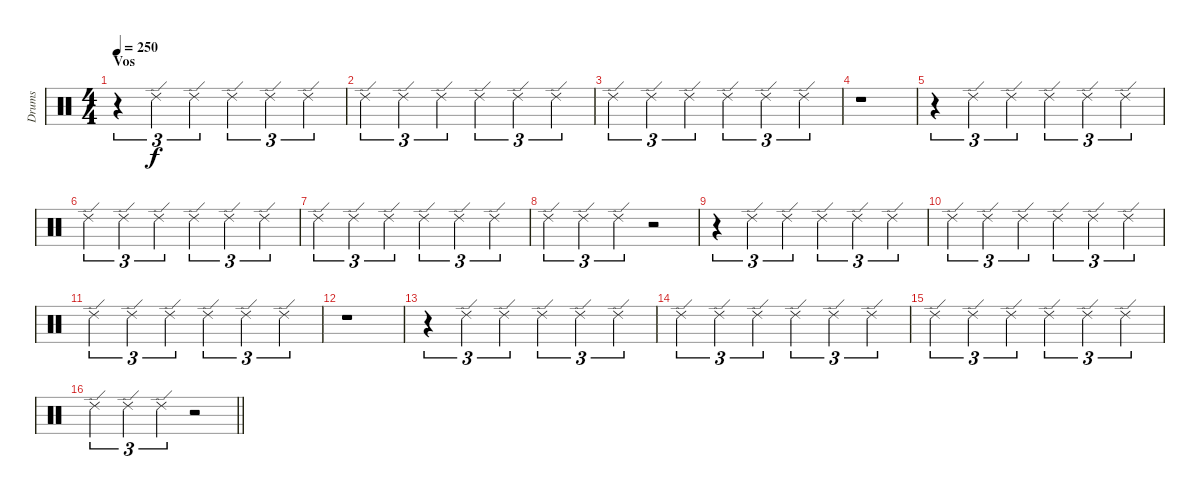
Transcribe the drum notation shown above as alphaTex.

\track ("Drums" "Drums") {instrument percussion}
\staff {score}
\articulation defaults
\ts (4 4)
\section ("" "Vos")
\tempo 250
\clef neutral
\ks c
r.4{tu (3 2) dy f} "Ride (edge) 2".4{tu (3 2)} "Ride (edge) 2".4{tu (3 2)} "Ride (edge) 2".4{tu (3 2)} "Ride (edge) 2".4{tu (3 2)} "Ride (edge) 2".4{tu (3 2)} |
"Ride (edge) 2".4{tu (3 2)} "Ride (edge) 2".4{tu (3 2)} "Ride (edge) 2".4{tu (3 2)} "Ride (edge) 2".4{tu (3 2)} "Ride (edge) 2".4{tu (3 2)} "Ride (edge) 2".4{tu (3 2)} |
"Ride (edge) 2".4{tu (3 2)} "Ride (edge) 2".4{tu (3 2)} "Ride (edge) 2".4{tu (3 2)} "Ride (edge) 2".4{tu (3 2)} "Ride (edge) 2".4{tu (3 2)} "Ride (edge) 2".4{tu (3 2)} |
r.1 |
r.4{tu (3 2)} "Ride (edge) 2".4{tu (3 2)} "Ride (edge) 2".4{tu (3 2)} "Ride (edge) 2".4{tu (3 2)} "Ride (edge) 2".4{tu (3 2)} "Ride (edge) 2".4{tu (3 2)} |
"Ride (edge) 2".4{tu (3 2)} "Ride (edge) 2".4{tu (3 2)} "Ride (edge) 2".4{tu (3 2)} "Ride (edge) 2".4{tu (3 2)} "Ride (edge) 2".4{tu (3 2)} "Ride (edge) 2".4{tu (3 2)} |
"Ride (edge) 2".4{tu (3 2)} "Ride (edge) 2".4{tu (3 2)} "Ride (edge) 2".4{tu (3 2)} "Ride (edge) 2".4{tu (3 2)} "Ride (edge) 2".4{tu (3 2)} "Ride (edge) 2".4{tu (3 2)} |
"Ride (edge) 2".4{tu (3 2)} "Ride (edge) 2".4{tu (3 2)} "Ride (edge) 2".4{tu (3 2)} r.2 |
r.4{tu (3 2)} "Ride (edge) 2".4{tu (3 2)} "Ride (edge) 2".4{tu (3 2)} "Ride (edge) 2".4{tu (3 2)} "Ride (edge) 2".4{tu (3 2)} "Ride (edge) 2".4{tu (3 2)} |
"Ride (edge) 2".4{tu (3 2)} "Ride (edge) 2".4{tu (3 2)} "Ride (edge) 2".4{tu (3 2)} "Ride (edge) 2".4{tu (3 2)} "Ride (edge) 2".4{tu (3 2)} "Ride (edge) 2".4{tu (3 2)} |
"Ride (edge) 2".4{tu (3 2)} "Ride (edge) 2".4{tu (3 2)} "Ride (edge) 2".4{tu (3 2)} "Ride (edge) 2".4{tu (3 2)} "Ride (edge) 2".4{tu (3 2)} "Ride (edge) 2".4{tu (3 2)} |
r.1 |
r.4{tu (3 2)} "Ride (edge) 2".4{tu (3 2)} "Ride (edge) 2".4{tu (3 2)} "Ride (edge) 2".4{tu (3 2)} "Ride (edge) 2".4{tu (3 2)} "Ride (edge) 2".4{tu (3 2)} |
"Ride (edge) 2".4{tu (3 2)} "Ride (edge) 2".4{tu (3 2)} "Ride (edge) 2".4{tu (3 2)} "Ride (edge) 2".4{tu (3 2)} "Ride (edge) 2".4{tu (3 2)} "Ride (edge) 2".4{tu (3 2)} |
"Ride (edge) 2".4{tu (3 2)} "Ride (edge) 2".4{tu (3 2)} "Ride (edge) 2".4{tu (3 2)} "Ride (edge) 2".4{tu (3 2)} "Ride (edge) 2".4{tu (3 2)} "Ride (edge) 2".4{tu (3 2)} |
\barLineRight lightlight "Ride (edge) 2".4{tu (3 2)} "Ride (edge) 2".4{tu (3 2)} "Ride (edge) 2".4{tu (3 2)}
r.2
